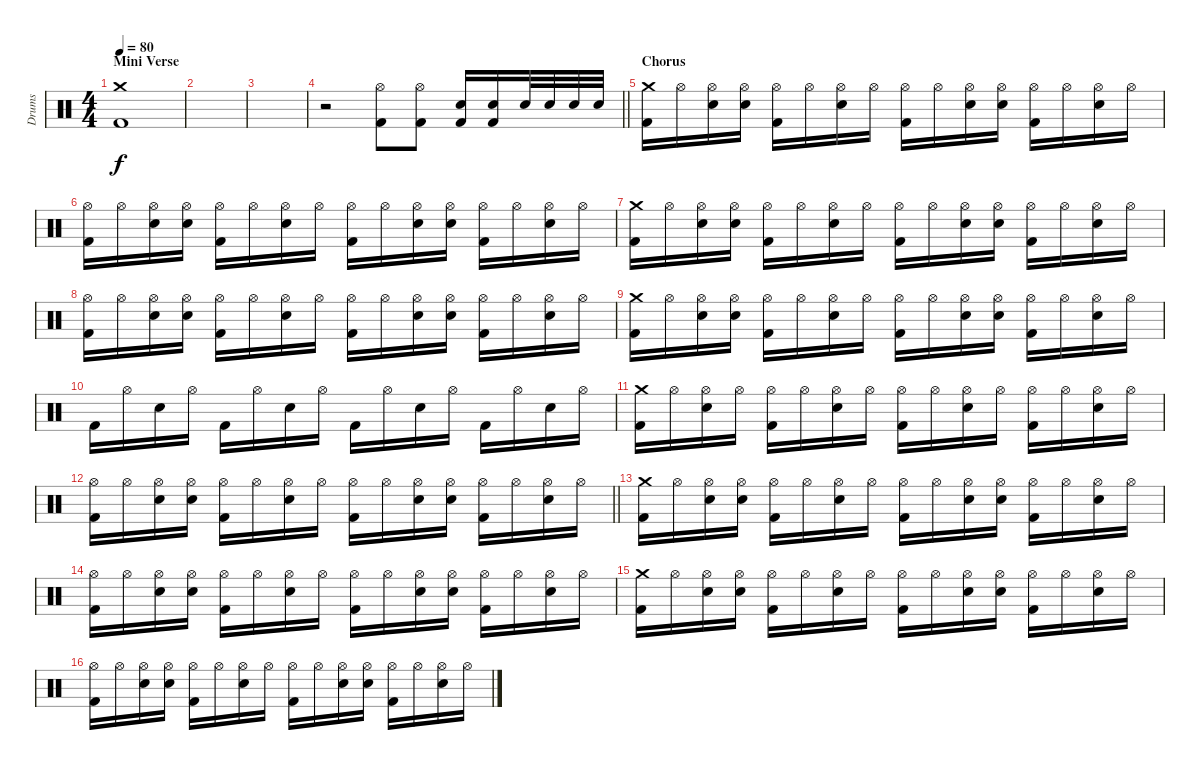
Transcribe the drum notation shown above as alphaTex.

\track ("Drums" "Drums") {instrument percussion}
\staff {score}
\articulation defaults
\ts (4 4)
\section ("" "Mini Verse")
\tempo 80
\clef neutral
\ks c
("Crash medium (hit)" "Kick (hit) 2").1{dy f} |
|
|
\barLineRight lightlight
r.2 ("Hi-Hat (open)" "Kick (hit) 2").8 ("Hi-Hat (open)" "Kick (hit) 2").8 ("Snare (hit) 2" "Kick (hit) 2").16 ("Snare (hit) 2" "Kick (hit) 2").16 "Snare (hit) 2".32 "Snare (hit) 2".32 "Snare (hit) 2".32 "Snare (hit) 2".32 |
\section ("" "Chorus")
("Crash medium (hit)" "Kick (hit) 2").16 "Hi-Hat (open)".16 ("Hi-Hat (open)" "Snare (hit) 2").16 ("Hi-Hat (open)" "Snare (hit) 2").16 ("Hi-Hat (open)" "Kick (hit) 2").16 "Hi-Hat (open)".16 ("Hi-Hat (open)" "Snare (hit) 2").16 "Hi-Hat (open)".16 ("Hi-Hat (open)" "Kick (hit) 2").16 "Hi-Hat (open)".16 ("Hi-Hat (open)" "Snare (hit) 2").16 ("Hi-Hat (open)" "Snare (hit) 2").16 ("Hi-Hat (open)" "Kick (hit) 2").16 "Hi-Hat (open)".16 ("Hi-Hat (open)" "Snare (hit) 2").16 "Hi-Hat (open)".16 |
("Hi-Hat (open)" "Kick (hit) 2").16 "Hi-Hat (open)".16 ("Hi-Hat (open)" "Snare (hit) 2").16 ("Hi-Hat (open)" "Snare (hit) 2").16 ("Hi-Hat (open)" "Kick (hit) 2").16 "Hi-Hat (open)".16 ("Hi-Hat (open)" "Snare (hit) 2").16 "Hi-Hat (open)".16 ("Hi-Hat (open)" "Kick (hit) 2").16 "Hi-Hat (open)".16 ("Hi-Hat (open)" "Snare (hit) 2").16 ("Hi-Hat (open)" "Snare (hit) 2").16 ("Hi-Hat (open)" "Kick (hit) 2").16 "Hi-Hat (open)".16 ("Hi-Hat (open)" "Snare (hit) 2").16 "Hi-Hat (open)".16 |
("Crash medium (hit)" "Kick (hit) 2").16 "Hi-Hat (open)".16 ("Hi-Hat (open)" "Snare (hit) 2").16 ("Hi-Hat (open)" "Snare (hit) 2").16 ("Hi-Hat (open)" "Kick (hit) 2").16 "Hi-Hat (open)".16 ("Hi-Hat (open)" "Snare (hit) 2").16 "Hi-Hat (open)".16 ("Hi-Hat (open)" "Kick (hit) 2").16 "Hi-Hat (open)".16 ("Hi-Hat (open)" "Snare (hit) 2").16 ("Hi-Hat (open)" "Snare (hit) 2").16 ("Hi-Hat (open)" "Kick (hit) 2").16 "Hi-Hat (open)".16 ("Hi-Hat (open)" "Snare (hit) 2").16 "Hi-Hat (open)".16 |
("Hi-Hat (open)" "Kick (hit) 2").16 "Hi-Hat (open)".16 ("Hi-Hat (open)" "Snare (hit) 2").16 ("Hi-Hat (open)" "Snare (hit) 2").16 ("Hi-Hat (open)" "Kick (hit) 2").16 "Hi-Hat (open)".16 ("Hi-Hat (open)" "Snare (hit) 2").16 "Hi-Hat (open)".16 ("Hi-Hat (open)" "Kick (hit) 2").16 "Hi-Hat (open)".16 ("Hi-Hat (open)" "Snare (hit) 2").16 ("Hi-Hat (open)" "Snare (hit) 2").16 ("Hi-Hat (open)" "Kick (hit) 2").16 "Hi-Hat (open)".16 ("Hi-Hat (open)" "Snare (hit) 2").16 "Hi-Hat (open)".16 |
("Crash medium (hit)" "Kick (hit) 2").16 "Hi-Hat (open)".16 ("Hi-Hat (open)" "Snare (hit) 2").16 ("Hi-Hat (open)" "Snare (hit) 2").16 ("Hi-Hat (open)" "Kick (hit) 2").16 "Hi-Hat (open)".16 ("Hi-Hat (open)" "Snare (hit) 2").16 "Hi-Hat (open)".16 ("Hi-Hat (open)" "Kick (hit) 2").16 "Hi-Hat (open)".16 ("Hi-Hat (open)" "Snare (hit) 2").16 ("Hi-Hat (open)" "Snare (hit) 2").16 ("Hi-Hat (open)" "Kick (hit) 2").16 "Hi-Hat (open)".16 ("Hi-Hat (open)" "Snare (hit) 2").16 "Hi-Hat (open)".16 |
"Kick (hit) 2".16 "Hi-Hat (open)".16 "Snare (hit) 2".16 "Hi-Hat (open)".16 "Kick (hit) 2".16 "Hi-Hat (open)".16 "Snare (hit) 2".16 "Hi-Hat (open)".16 "Kick (hit) 2".16 "Hi-Hat (open)".16 "Snare (hit) 2".16 "Hi-Hat (open)".16 "Kick (hit) 2".16 "Hi-Hat (open)".16 "Snare (hit) 2".16 "Hi-Hat (open)".16 |
("Crash medium (hit)" "Kick (hit) 2").16 "Hi-Hat (open)".16 ("Hi-Hat (open)" "Snare (hit) 2").16 "Hi-Hat (open)".16 ("Hi-Hat (open)" "Kick (hit) 2").16 "Hi-Hat (open)".16 ("Hi-Hat (open)" "Snare (hit) 2").16 "Hi-Hat (open)".16 ("Hi-Hat (open)" "Kick (hit) 2").16 "Hi-Hat (open)".16 ("Hi-Hat (open)" "Snare (hit) 2").16 "Hi-Hat (open)".16 ("Hi-Hat (open)" "Kick (hit) 2").16 "Hi-Hat (open)".16 ("Hi-Hat (open)" "Snare (hit) 2").16 "Hi-Hat (open)".16 |
\barLineRight lightlight
("Hi-Hat (open)" "Kick (hit) 2").16 "Hi-Hat (open)".16 ("Hi-Hat (open)" "Snare (hit) 2").16 ("Hi-Hat (open)" "Snare (hit) 2").16 ("Hi-Hat (open)" "Kick (hit) 2").16 "Hi-Hat (open)".16 ("Hi-Hat (open)" "Snare (hit) 2").16 "Hi-Hat (open)".16 ("Hi-Hat (open)" "Kick (hit) 2").16 "Hi-Hat (open)".16 ("Hi-Hat (open)" "Snare (hit) 2").16 ("Hi-Hat (open)" "Snare (hit) 2").16 ("Hi-Hat (open)" "Kick (hit) 2").16 "Hi-Hat (open)".16 ("Hi-Hat (open)" "Snare (hit) 2").16 "Hi-Hat (open)".16 |
("Crash medium (hit)" "Kick (hit) 2").16 "Hi-Hat (open)".16 ("Hi-Hat (open)" "Snare (hit) 2").16 ("Hi-Hat (open)" "Snare (hit) 2").16 ("Hi-Hat (open)" "Kick (hit) 2").16 "Hi-Hat (open)".16 ("Hi-Hat (open)" "Snare (hit) 2").16 "Hi-Hat (open)".16 ("Hi-Hat (open)" "Kick (hit) 2").16 "Hi-Hat (open)".16 ("Hi-Hat (open)" "Snare (hit) 2").16 ("Hi-Hat (open)" "Snare (hit) 2").16 ("Hi-Hat (open)" "Kick (hit) 2").16 "Hi-Hat (open)".16 ("Hi-Hat (open)" "Snare (hit) 2").16 "Hi-Hat (open)".16 |
("Hi-Hat (open)" "Kick (hit) 2").16 "Hi-Hat (open)".16 ("Hi-Hat (open)" "Snare (hit) 2").16 ("Hi-Hat (open)" "Snare (hit) 2").16 ("Hi-Hat (open)" "Kick (hit) 2").16 "Hi-Hat (open)".16 ("Hi-Hat (open)" "Snare (hit) 2").16 "Hi-Hat (open)".16 ("Hi-Hat (open)" "Kick (hit) 2").16 "Hi-Hat (open)".16 ("Hi-Hat (open)" "Snare (hit) 2").16 ("Hi-Hat (open)" "Snare (hit) 2").16 ("Hi-Hat (open)" "Kick (hit) 2").16 "Hi-Hat (open)".16 ("Hi-Hat (open)" "Snare (hit) 2").16 "Hi-Hat (open)".16 |
("Crash medium (hit)" "Kick (hit) 2").16 "Hi-Hat (open)".16 ("Hi-Hat (open)" "Snare (hit) 2").16 ("Hi-Hat (open)" "Snare (hit) 2").16 ("Hi-Hat (open)" "Kick (hit) 2").16 "Hi-Hat (open)".16 ("Hi-Hat (open)" "Snare (hit) 2").16 "Hi-Hat (open)".16 ("Hi-Hat (open)" "Kick (hit) 2").16 "Hi-Hat (open)".16 ("Hi-Hat (open)" "Snare (hit) 2").16 ("Hi-Hat (open)" "Snare (hit) 2").16 ("Hi-Hat (open)" "Kick (hit) 2").16 "Hi-Hat (open)".16 ("Hi-Hat (open)" "Snare (hit) 2").16 "Hi-Hat (open)".16 |
("Hi-Hat (open)" "Kick (hit) 2").16 "Hi-Hat (open)".16 ("Hi-Hat (open)" "Snare (hit) 2").16 ("Hi-Hat (open)" "Snare (hit) 2").16 ("Hi-Hat (open)" "Kick (hit) 2").16 "Hi-Hat (open)".16 ("Hi-Hat (open)" "Snare (hit) 2").16 "Hi-Hat (open)".16 ("Hi-Hat (open)" "Kick (hit) 2").16 "Hi-Hat (open)".16 ("Hi-Hat (open)" "Snare (hit) 2").16 ("Hi-Hat (open)" "Snare (hit) 2").16 ("Hi-Hat (open)" "Kick (hit) 2").16 "Hi-Hat (open)".16 ("Hi-Hat (open)" "Snare (hit) 2").16 "Hi-Hat (open)".16
